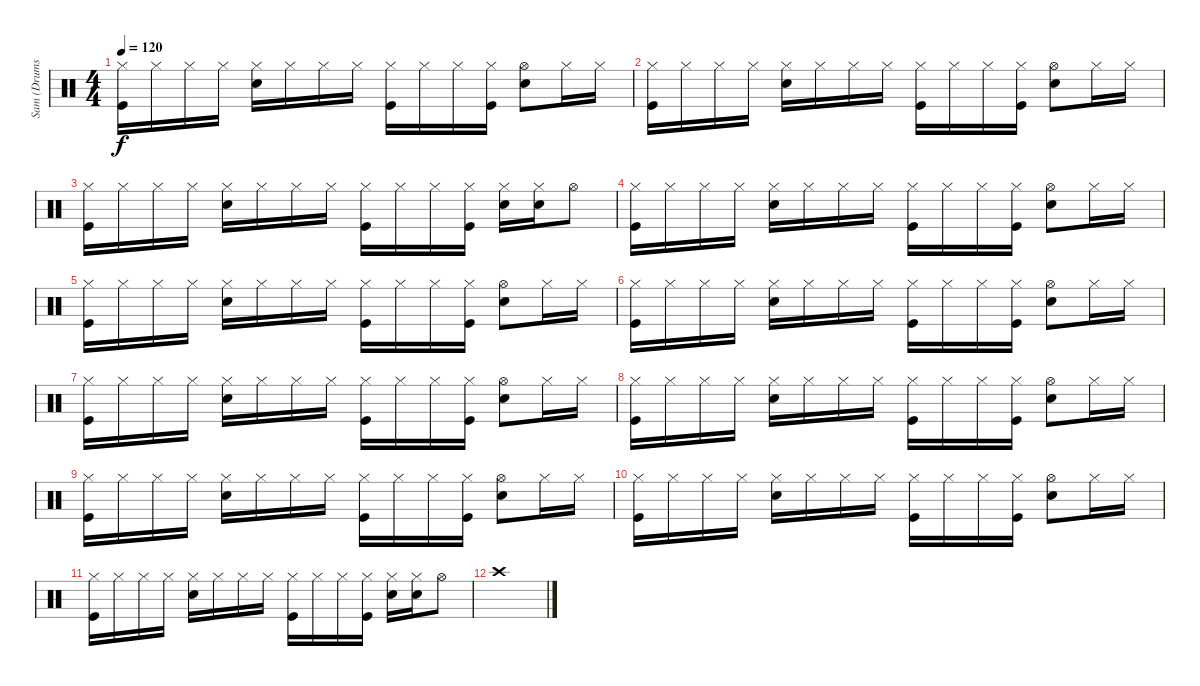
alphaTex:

\track ("Sam (Drums)" "Sam (Drums") {instrument percussion}
\staff {score}
\articulation defaults
\ts (4 4)
\tempo 120
\clef neutral
\ks c
("Hi-Hat (closed)" "Kick (hit)").16{dy f} "Hi-Hat (closed)".16 "Hi-Hat (closed)".16 "Hi-Hat (closed)".16 ("Hi-Hat (closed)" "Snare (hit) 2").16 "Hi-Hat (closed)".16 "Hi-Hat (closed)".16 "Hi-Hat (closed)".16 ("Hi-Hat (closed)" "Kick (hit)").16 "Hi-Hat (closed)".16 "Hi-Hat (closed)".16 ("Hi-Hat (closed)" "Kick (hit)").16 ("Hi-Hat (open)" "Snare (hit) 2").8 "Hi-Hat (closed)".16 "Hi-Hat (closed)".16 |
("Hi-Hat (closed)" "Kick (hit)").16 "Hi-Hat (closed)".16 "Hi-Hat (closed)".16 "Hi-Hat (closed)".16 ("Hi-Hat (closed)" "Snare (hit) 2").16 "Hi-Hat (closed)".16 "Hi-Hat (closed)".16 "Hi-Hat (closed)".16 ("Hi-Hat (closed)" "Kick (hit)").16 "Hi-Hat (closed)".16 "Hi-Hat (closed)".16 ("Hi-Hat (closed)" "Kick (hit)").16 ("Hi-Hat (open)" "Snare (hit) 2").8 "Hi-Hat (closed)".16 "Hi-Hat (closed)".16 |
("Hi-Hat (closed)" "Kick (hit)").16 "Hi-Hat (closed)".16 "Hi-Hat (closed)".16 "Hi-Hat (closed)".16 ("Hi-Hat (closed)" "Snare (hit) 2").16 "Hi-Hat (closed)".16 "Hi-Hat (closed)".16 "Hi-Hat (closed)".16 ("Hi-Hat (closed)" "Kick (hit)").16 "Hi-Hat (closed)".16 "Hi-Hat (closed)".16 ("Hi-Hat (closed)" "Kick (hit)").16 ("Hi-Hat (closed)" "Snare (hit) 2").16 ("Hi-Hat (closed)" "Snare (hit) 2").16 "Hi-Hat (open)".8 |
("Hi-Hat (closed)" "Kick (hit)").16 "Hi-Hat (closed)".16 "Hi-Hat (closed)".16 "Hi-Hat (closed)".16 ("Hi-Hat (closed)" "Snare (hit) 2").16 "Hi-Hat (closed)".16 "Hi-Hat (closed)".16 "Hi-Hat (closed)".16 ("Hi-Hat (closed)" "Kick (hit)").16 "Hi-Hat (closed)".16 "Hi-Hat (closed)".16 ("Hi-Hat (closed)" "Kick (hit)").16 ("Hi-Hat (open)" "Snare (hit) 2").8 "Hi-Hat (closed)".16 "Hi-Hat (closed)".16 |
("Hi-Hat (closed)" "Kick (hit)").16 "Hi-Hat (closed)".16 "Hi-Hat (closed)".16 "Hi-Hat (closed)".16 ("Hi-Hat (closed)" "Snare (hit) 2").16 "Hi-Hat (closed)".16 "Hi-Hat (closed)".16 "Hi-Hat (closed)".16 ("Hi-Hat (closed)" "Kick (hit)").16 "Hi-Hat (closed)".16 "Hi-Hat (closed)".16 ("Hi-Hat (closed)" "Kick (hit)").16 ("Hi-Hat (open)" "Snare (hit) 2").8 "Hi-Hat (closed)".16 "Hi-Hat (closed)".16 |
("Hi-Hat (closed)" "Kick (hit)").16 "Hi-Hat (closed)".16 "Hi-Hat (closed)".16 "Hi-Hat (closed)".16 ("Hi-Hat (closed)" "Snare (hit) 2").16 "Hi-Hat (closed)".16 "Hi-Hat (closed)".16 "Hi-Hat (closed)".16 ("Hi-Hat (closed)" "Kick (hit)").16 "Hi-Hat (closed)".16 "Hi-Hat (closed)".16 ("Hi-Hat (closed)" "Kick (hit)").16 ("Hi-Hat (open)" "Snare (hit) 2").8 "Hi-Hat (closed)".16 "Hi-Hat (closed)".16 |
("Hi-Hat (closed)" "Kick (hit)").16 "Hi-Hat (closed)".16 "Hi-Hat (closed)".16 "Hi-Hat (closed)".16 ("Hi-Hat (closed)" "Snare (hit) 2").16 "Hi-Hat (closed)".16 "Hi-Hat (closed)".16 "Hi-Hat (closed)".16 ("Hi-Hat (closed)" "Kick (hit)").16 "Hi-Hat (closed)".16 "Hi-Hat (closed)".16 ("Hi-Hat (closed)" "Kick (hit)").16 ("Hi-Hat (open)" "Snare (hit) 2").8 "Hi-Hat (closed)".16 "Hi-Hat (closed)".16 |
("Hi-Hat (closed)" "Kick (hit)").16 "Hi-Hat (closed)".16 "Hi-Hat (closed)".16 "Hi-Hat (closed)".16 ("Hi-Hat (closed)" "Snare (hit) 2").16 "Hi-Hat (closed)".16 "Hi-Hat (closed)".16 "Hi-Hat (closed)".16 ("Hi-Hat (closed)" "Kick (hit)").16 "Hi-Hat (closed)".16 "Hi-Hat (closed)".16 ("Hi-Hat (closed)" "Kick (hit)").16 ("Hi-Hat (open)" "Snare (hit) 2").8 "Hi-Hat (closed)".16 "Hi-Hat (closed)".16 |
("Hi-Hat (closed)" "Kick (hit)").16 "Hi-Hat (closed)".16 "Hi-Hat (closed)".16 "Hi-Hat (closed)".16 ("Hi-Hat (closed)" "Snare (hit) 2").16 "Hi-Hat (closed)".16 "Hi-Hat (closed)".16 "Hi-Hat (closed)".16 ("Hi-Hat (closed)" "Kick (hit)").16 "Hi-Hat (closed)".16 "Hi-Hat (closed)".16 ("Hi-Hat (closed)" "Kick (hit)").16 ("Hi-Hat (open)" "Snare (hit) 2").8 "Hi-Hat (closed)".16 "Hi-Hat (closed)".16 |
("Hi-Hat (closed)" "Kick (hit)").16 "Hi-Hat (closed)".16 "Hi-Hat (closed)".16 "Hi-Hat (closed)".16 ("Hi-Hat (closed)" "Snare (hit) 2").16 "Hi-Hat (closed)".16 "Hi-Hat (closed)".16 "Hi-Hat (closed)".16 ("Hi-Hat (closed)" "Kick (hit)").16 "Hi-Hat (closed)".16 "Hi-Hat (closed)".16 ("Hi-Hat (closed)" "Kick (hit)").16 ("Hi-Hat (open)" "Snare (hit) 2").8 "Hi-Hat (closed)".16 "Hi-Hat (closed)".16 |
("Hi-Hat (closed)" "Kick (hit)").16 "Hi-Hat (closed)".16 "Hi-Hat (closed)".16 "Hi-Hat (closed)".16 ("Hi-Hat (closed)" "Snare (hit) 2").16 "Hi-Hat (closed)".16 "Hi-Hat (closed)".16 "Hi-Hat (closed)".16 ("Hi-Hat (closed)" "Kick (hit)").16 "Hi-Hat (closed)".16 "Hi-Hat (closed)".16 ("Hi-Hat (closed)" "Kick (hit)").16 ("Hi-Hat (closed)" "Snare (hit) 2").16 ("Hi-Hat (closed)" "Snare (hit) 2").16 "Hi-Hat (open)".8 |
"Crash high (hit)".1
